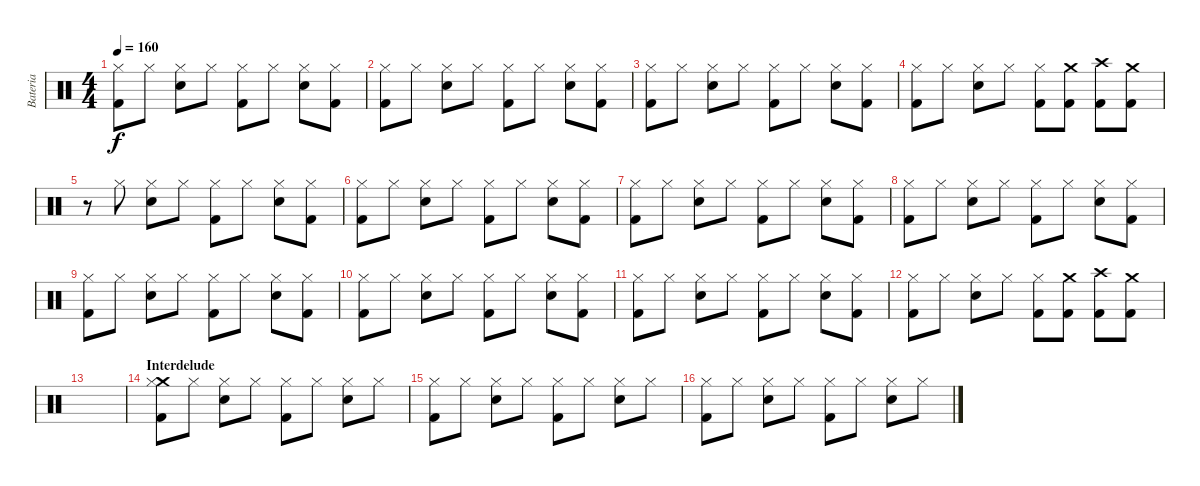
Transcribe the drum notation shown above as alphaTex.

\track ("Bateria" "Bateria") {instrument percussion}
\staff {score}
\articulation defaults
\ts (4 4)
\tempo 160
\clef neutral
\ks c
("Hi-Hat (closed)" "Kick (hit) 2").8{dy f} "Hi-Hat (closed)".8 ("Hi-Hat (closed)" "Electric Snare (hit)").8 "Hi-Hat (closed)".8 ("Hi-Hat (closed)" "Kick (hit) 2").8 "Hi-Hat (closed)".8 ("Hi-Hat (closed)" "Electric Snare (hit)").8 ("Hi-Hat (closed)" "Kick (hit) 2").8 |
("Hi-Hat (closed)" "Kick (hit) 2").8 "Hi-Hat (closed)".8 ("Hi-Hat (closed)" "Electric Snare (hit)").8 "Hi-Hat (closed)".8 ("Hi-Hat (closed)" "Kick (hit) 2").8 "Hi-Hat (closed)".8 ("Hi-Hat (closed)" "Electric Snare (hit)").8 ("Hi-Hat (closed)" "Kick (hit) 2").8 |
("Hi-Hat (closed)" "Kick (hit) 2").8 "Hi-Hat (closed)".8 ("Hi-Hat (closed)" "Electric Snare (hit)").8 "Hi-Hat (closed)".8 ("Hi-Hat (closed)" "Kick (hit) 2").8 "Hi-Hat (closed)".8 ("Hi-Hat (closed)" "Electric Snare (hit)").8 ("Hi-Hat (closed)" "Kick (hit) 2").8 |
("Hi-Hat (closed)" "Kick (hit) 2").8 "Hi-Hat (closed)".8 ("Hi-Hat (closed)" "Electric Snare (hit)").8 "Hi-Hat (closed)".8 ("Hi-Hat (closed)" "Kick (hit) 2").8 ("Crash medium (hit)" "Kick (hit) 2").8 ("Crash high (hit)" "Kick (hit) 2").8 ("Crash medium (hit)" "Kick (hit) 2").8 |
r.8 "Hi-Hat (closed)".8 ("Hi-Hat (closed)" "Electric Snare (hit)").8 "Hi-Hat (closed)".8 ("Hi-Hat (closed)" "Kick (hit) 2").8 "Hi-Hat (closed)".8 ("Hi-Hat (closed)" "Electric Snare (hit)").8 ("Hi-Hat (closed)" "Kick (hit) 2").8 |
("Hi-Hat (closed)" "Kick (hit) 2").8 "Hi-Hat (closed)".8 ("Hi-Hat (closed)" "Electric Snare (hit)").8 "Hi-Hat (closed)".8 ("Hi-Hat (closed)" "Kick (hit) 2").8 "Hi-Hat (closed)".8 ("Hi-Hat (closed)" "Electric Snare (hit)").8 ("Hi-Hat (closed)" "Kick (hit) 2").8 |
("Hi-Hat (closed)" "Kick (hit) 2").8 "Hi-Hat (closed)".8 ("Hi-Hat (closed)" "Electric Snare (hit)").8 "Hi-Hat (closed)".8 ("Hi-Hat (closed)" "Kick (hit) 2").8 "Hi-Hat (closed)".8 ("Hi-Hat (closed)" "Electric Snare (hit)").8 ("Hi-Hat (closed)" "Kick (hit) 2").8 |
("Hi-Hat (closed)" "Kick (hit) 2").8 "Hi-Hat (closed)".8 ("Hi-Hat (closed)" "Electric Snare (hit)").8 "Hi-Hat (closed)".8 ("Hi-Hat (closed)" "Kick (hit) 2").8 "Hi-Hat (closed)".8 ("Hi-Hat (closed)" "Electric Snare (hit)").8 ("Hi-Hat (closed)" "Kick (hit) 2").8 |
("Hi-Hat (closed)" "Kick (hit) 2").8 "Hi-Hat (closed)".8 ("Hi-Hat (closed)" "Electric Snare (hit)").8 "Hi-Hat (closed)".8 ("Hi-Hat (closed)" "Kick (hit) 2").8 "Hi-Hat (closed)".8 ("Hi-Hat (closed)" "Electric Snare (hit)").8 ("Hi-Hat (closed)" "Kick (hit) 2").8 |
("Hi-Hat (closed)" "Kick (hit) 2").8 "Hi-Hat (closed)".8 ("Hi-Hat (closed)" "Electric Snare (hit)").8 "Hi-Hat (closed)".8 ("Hi-Hat (closed)" "Kick (hit) 2").8 "Hi-Hat (closed)".8 ("Hi-Hat (closed)" "Electric Snare (hit)").8 ("Hi-Hat (closed)" "Kick (hit) 2").8 |
("Hi-Hat (closed)" "Kick (hit) 2").8 "Hi-Hat (closed)".8 ("Hi-Hat (closed)" "Electric Snare (hit)").8 "Hi-Hat (closed)".8 ("Hi-Hat (closed)" "Kick (hit) 2").8 "Hi-Hat (closed)".8 ("Hi-Hat (closed)" "Electric Snare (hit)").8 ("Hi-Hat (closed)" "Kick (hit) 2").8 |
("Hi-Hat (closed)" "Kick (hit) 2").8 "Hi-Hat (closed)".8 ("Hi-Hat (closed)" "Electric Snare (hit)").8 "Hi-Hat (closed)".8 ("Hi-Hat (closed)" "Kick (hit) 2").8 ("Crash medium (hit)" "Kick (hit) 2").8 ("Crash high (hit)" "Kick (hit) 2").8 ("Crash medium (hit)" "Kick (hit) 2").8 |
|
\section ("" "Interdelude")
("Crash medium (hit)" "Hi-Hat (closed)" "Kick (hit) 2").8 "Hi-Hat (closed)".8 ("Hi-Hat (closed)" "Electric Snare (hit)").8 "Hi-Hat (closed)".8 ("Hi-Hat (closed)" "Kick (hit) 2").8 "Hi-Hat (closed)".8 ("Hi-Hat (closed)" "Electric Snare (hit)").8 "Hi-Hat (closed)".8 |
("Hi-Hat (closed)" "Kick (hit) 2").8 "Hi-Hat (closed)".8 ("Hi-Hat (closed)" "Electric Snare (hit)").8 "Hi-Hat (closed)".8 ("Hi-Hat (closed)" "Kick (hit) 2").8 "Hi-Hat (closed)".8 ("Hi-Hat (closed)" "Electric Snare (hit)").8 "Hi-Hat (closed)".8 |
("Hi-Hat (closed)" "Kick (hit) 2").8 "Hi-Hat (closed)".8 ("Hi-Hat (closed)" "Electric Snare (hit)").8 "Hi-Hat (closed)".8 ("Hi-Hat (closed)" "Kick (hit) 2").8 "Hi-Hat (closed)".8 ("Hi-Hat (closed)" "Electric Snare (hit)").8 "Hi-Hat (closed)".8
